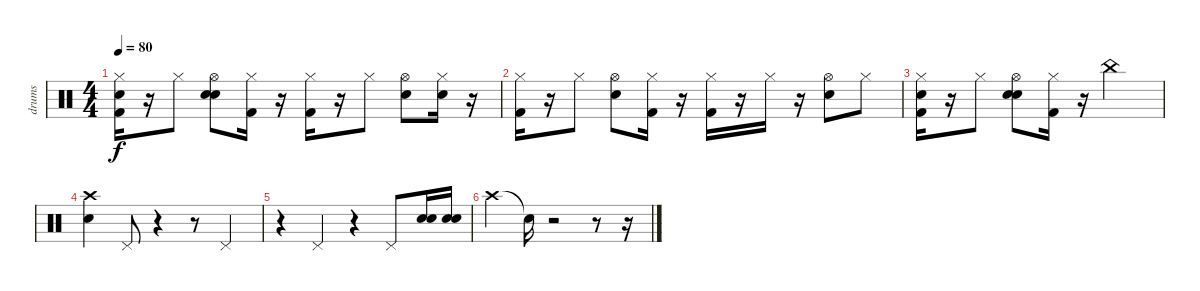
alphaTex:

\track ("drums" "drums") {instrument percussion}
\staff {score}
\articulation defaults
\ts (4 4)
\tempo 80
\clef neutral
\ks c
("Snare (hit)" "Hi-Hat (closed)" "Kick (hit) 2").16{dy f} r.16 "Hi-Hat (closed)".8 ("Snare (hit)" "Snare (hit) 2" "Hi-Hat (open)").8 ("Kick (hit) 2" "Hi-Hat (closed)").16 r.16 ("Kick (hit) 2" "Hi-Hat (closed)").16 r.16 "Hi-Hat (closed)".8 ("Snare (hit) 2" "Hi-Hat (open)").8 ("Snare (hit)" "Hi-Hat (closed)").16 r.16 |
("Hi-Hat (closed)" "Kick (hit) 2").16 r.16 "Hi-Hat (closed)".8 ("Snare (hit) 2" "Hi-Hat (open)").8 ("Hi-Hat (closed)" "Kick (hit) 2").16 r.16 ("Hi-Hat (closed)" "Kick (hit) 2").16 r.16 "Hi-Hat (closed)".16 r.16 ("Hi-Hat (open)" "Snare (hit) 2").8 "Hi-Hat (closed)".8 |
("Snare (hit)" "Hi-Hat (closed)" "Kick (hit) 2").16 r.16 "Hi-Hat (closed)".8 ("Snare (hit)" "Snare (hit) 2" "Hi-Hat (open)").8 ("Hi-Hat (closed)" "Kick (hit) 2").16 r.16 "China (hit)".2 |
("Snare (hit)" "Crash high (hit)").4 "Pedal Hi-Hat (hit)".8 r.4 r.8 "Pedal Hi-Hat (hit)".4 |
r.4 "Pedal Hi-Hat (hit)".4 r.4 "Pedal Hi-Hat (hit)".8 ("Snare (hit)" "Snare (hit) 2").16 ("Snare (hit)" "Snare (hit) 2").16 |
"Crash high (hit)".4 "Snare (hit)"{t}.16 r.2 r.8 r.16
